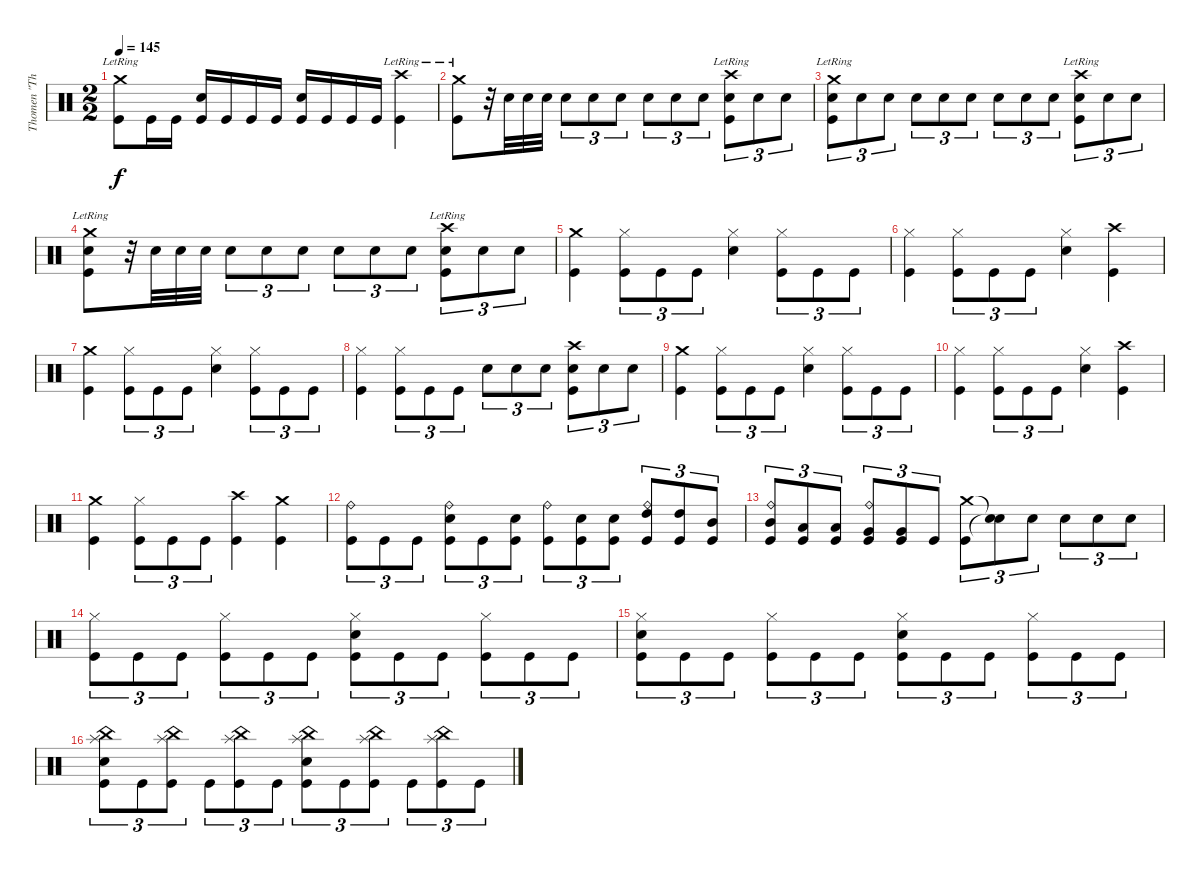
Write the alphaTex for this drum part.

\track ("Thomen \"The Omen\" Stauch" "Thomen \"Th") {instrument percussion}
\staff {score}
\articulation defaults
\ts (2 2)
\tempo 145
\clef neutral
\ks c
("Crash medium (hit)"{lr} "Kick (hit)").8{dy f} "Kick (hit)".16 "Kick (hit)".16 ("Snare (hit) 2" "Kick (hit)").16 "Kick (hit)".16 "Kick (hit)".16 "Kick (hit)".16 ("Snare (hit) 2" "Kick (hit)").16 "Kick (hit)".16 "Kick (hit)".16 "Kick (hit)".16 ("Crash high (hit)"{lr} "Kick (hit)").4 |
("Crash medium (hit)"{lr} "Kick (hit)").8 r.32 "Snare (hit) 2".32 "Snare (hit) 2".32 "Snare (hit) 2".32 "Snare (hit) 2".8{tu (3 2)} "Snare (hit) 2".8{tu (3 2)} "Snare (hit) 2".8{tu (3 2)} "Snare (hit) 2".8{tu (3 2)} "Snare (hit) 2".8{tu (3 2)} "Snare (hit) 2".8{tu (3 2)} ("Crash high (hit)"{lr} "Snare (hit) 2" "Kick (hit)").8{tu (3 2)} "Snare (hit) 2".8{tu (3 2)} "Snare (hit) 2".8{tu (3 2)} |
("Crash medium (hit)"{lr} "Snare (hit) 2" "Kick (hit)").8{tu (3 2)} "Snare (hit) 2".8{tu (3 2)} "Snare (hit) 2".8{tu (3 2)} "Snare (hit) 2".8{tu (3 2)} "Snare (hit) 2".8{tu (3 2)} "Snare (hit) 2".8{tu (3 2)} "Snare (hit) 2".8{tu (3 2)} "Snare (hit) 2".8{tu (3 2)} "Snare (hit) 2".8{tu (3 2)} ("Crash high (hit)"{lr} "Snare (hit) 2" "Kick (hit)").8{tu (3 2)} "Snare (hit) 2".8{tu (3 2)} "Snare (hit) 2".8{tu (3 2)} |
("Crash medium (hit)"{lr} "Snare (hit) 2" "Kick (hit)").8 r.32 "Snare (hit) 2".32 "Snare (hit) 2".32 "Snare (hit) 2".32 "Snare (hit) 2".8{tu (3 2)} "Snare (hit) 2".8{tu (3 2)} "Snare (hit) 2".8{tu (3 2)} "Snare (hit) 2".8{tu (3 2)} "Snare (hit) 2".8{tu (3 2)} "Snare (hit) 2".8{tu (3 2)} ("Crash high (hit)"{lr} "Snare (hit) 2" "Kick (hit)").8{tu (3 2)} "Snare (hit) 2".8{tu (3 2)} "Snare (hit) 2".8{tu (3 2)} |
("Crash medium (hit)" "Kick (hit)").4 ("Hi-Hat (closed)" "Kick (hit)").8{tu (3 2)} "Kick (hit)".8{tu (3 2)} "Kick (hit)".8{tu (3 2)} ("Hi-Hat (closed)" "Snare (hit) 2").4 ("Hi-Hat (closed)" "Kick (hit)").8{tu (3 2)} "Kick (hit)".8{tu (3 2)} "Kick (hit)".8{tu (3 2)} |
("Hi-Hat (closed)" "Kick (hit)").4 ("Hi-Hat (closed)" "Kick (hit)").8{tu (3 2)} "Kick (hit)".8{tu (3 2)} "Kick (hit)".8{tu (3 2)} ("Hi-Hat (closed)" "Snare (hit) 2").4 ("Crash high (hit)" "Kick (hit)").4 |
("Crash medium (hit)" "Kick (hit)").4 ("Hi-Hat (closed)" "Kick (hit)").8{tu (3 2)} "Kick (hit)".8{tu (3 2)} "Kick (hit)".8{tu (3 2)} ("Hi-Hat (closed)" "Snare (hit) 2").4 ("Hi-Hat (closed)" "Kick (hit)").8{tu (3 2)} "Kick (hit)".8{tu (3 2)} "Kick (hit)".8{tu (3 2)} |
("Hi-Hat (closed)" "Kick (hit)").4 ("Hi-Hat (closed)" "Kick (hit)").8{tu (3 2)} "Kick (hit)".8{tu (3 2)} "Kick (hit)".8{tu (3 2)} "Snare (hit) 2".8{tu (3 2)} "Snare (hit) 2".8{tu (3 2)} "Snare (hit) 2".8{tu (3 2)} ("Crash high (hit)" "Snare (hit) 2" "Kick (hit)").8{tu (3 2)} "Snare (hit) 2".8{tu (3 2)} "Snare (hit) 2".8{tu (3 2)} |
("Crash medium (hit)" "Kick (hit)").4 ("Hi-Hat (closed)" "Kick (hit)").8{tu (3 2)} "Kick (hit)".8{tu (3 2)} "Kick (hit)".8{tu (3 2)} ("Hi-Hat (closed)" "Snare (hit) 2").4 ("Hi-Hat (closed)" "Kick (hit)").8{tu (3 2)} "Kick (hit)".8{tu (3 2)} "Kick (hit)".8{tu (3 2)} |
("Hi-Hat (closed)" "Kick (hit)").4 ("Hi-Hat (closed)" "Kick (hit)").8{tu (3 2)} "Kick (hit)".8{tu (3 2)} "Kick (hit)".8{tu (3 2)} ("Hi-Hat (closed)" "Snare (hit) 2").4 ("Crash high (hit)" "Kick (hit)").4 |
("Crash medium (hit)" "Kick (hit)").4 ("Hi-Hat (closed)" "Kick (hit)").8{tu (3 2)} "Kick (hit)".8{tu (3 2)} "Kick (hit)".8{tu (3 2)} ("Crash high (hit)" "Kick (hit)").4 ("Crash medium (hit)" "Kick (hit)").4 |
("Ride (bell)" "Kick (hit)").8{tu (3 2)} "Kick (hit)".8{tu (3 2)} "Kick (hit)".8{tu (3 2)} ("Ride (bell)" "Snare (hit) 2" "Kick (hit)").8{tu (3 2)} "Kick (hit)".8{tu (3 2)} ("Snare (hit) 2" "Kick (hit)").8{tu (3 2)} ("Ride (bell)" "Kick (hit)").8{tu (3 2)} ("Snare (hit) 2" "Kick (hit)").8{tu (3 2)} ("Snare (hit) 2" "Kick (hit)").8{tu (3 2)} ("Ride (bell)" "High Tom (hit)" "Kick (hit)").8{tu (3 2)} ("High Tom (hit)" "Kick (hit)").8{tu (3 2)} ("Mid Tom (hit)" "Kick (hit)").8{tu (3 2)} |
("Ride (bell)" "Mid Tom (hit)" "Kick (hit)").8{tu (3 2)} ("Low Tom (hit)" "Kick (hit)").8{tu (3 2)} ("Low Tom (hit)" "Kick (hit)").8{tu (3 2)} ("Ride (bell)" "Very Low Tom (hit)" "Kick (hit)").8{tu (3 2)} ("Very Low Tom (hit)" "Kick (hit)").8{tu (3 2)} "Kick (hit)".8{tu (3 2)} ("Crash medium (hit)" "Kick (hit)").8{tu (3 2)} ("Snare (hit)"{t} "Snare (hit)"{t}).8{tu (3 2)} "Snare (hit) 2".8{tu (3 2)} "Snare (hit) 2".8{tu (3 2)} "Snare (hit) 2".8{tu (3 2)} "Snare (hit) 2".8{tu (3 2)} |
("Hi-Hat (closed)" "Kick (hit)").8{tu (3 2)} "Kick (hit)".8{tu (3 2)} "Kick (hit)".8{tu (3 2)} ("Hi-Hat (closed)" "Kick (hit)").8{tu (3 2)} "Kick (hit)".8{tu (3 2)} "Kick (hit)".8{tu (3 2)} ("Hi-Hat (closed)" "Snare (hit) 2" "Kick (hit)").8{tu (3 2)} "Kick (hit)".8{tu (3 2)} "Kick (hit)".8{tu (3 2)} ("Hi-Hat (closed)" "Kick (hit)").8{tu (3 2)} "Kick (hit)".8{tu (3 2)} "Kick (hit)".8{tu (3 2)} |
("Hi-Hat (closed)" "Snare (hit) 2" "Kick (hit)").8{tu (3 2)} "Kick (hit)".8{tu (3 2)} "Kick (hit)".8{tu (3 2)} ("Hi-Hat (closed)" "Kick (hit)").8{tu (3 2)} "Kick (hit)".8{tu (3 2)} "Kick (hit)".8{tu (3 2)} ("Hi-Hat (closed)" "Snare (hit) 2" "Kick (hit)").8{tu (3 2)} "Kick (hit)".8{tu (3 2)} "Kick (hit)".8{tu (3 2)} ("Hi-Hat (closed)" "Kick (hit)").8{tu (3 2)} "Kick (hit)".8{tu (3 2)} "Kick (hit)".8{tu (3 2)} |
("Splash (hit)" "China (hit)" "Snare (hit) 2" "Kick (hit)").8{tu (3 2)} "Kick (hit)".8{tu (3 2)} ("Splash (hit)" "China (hit)" "Kick (hit)").8{tu (3 2)} "Kick (hit)".8{tu (3 2)} ("Splash (hit)" "China (hit)" "Kick (hit)").8{tu (3 2)} "Kick (hit)".8{tu (3 2)} ("Splash (hit)" "China (hit)" "Snare (hit) 2" "Kick (hit)").8{tu (3 2)} "Kick (hit)".8{tu (3 2)} ("Splash (hit)" "China (hit)" "Kick (hit)").8{tu (3 2)} "Kick (hit)".8{tu (3 2)} ("Splash (hit)" "China (hit)" "Kick (hit)").8{tu (3 2)} "Kick (hit)".8{tu (3 2)}
